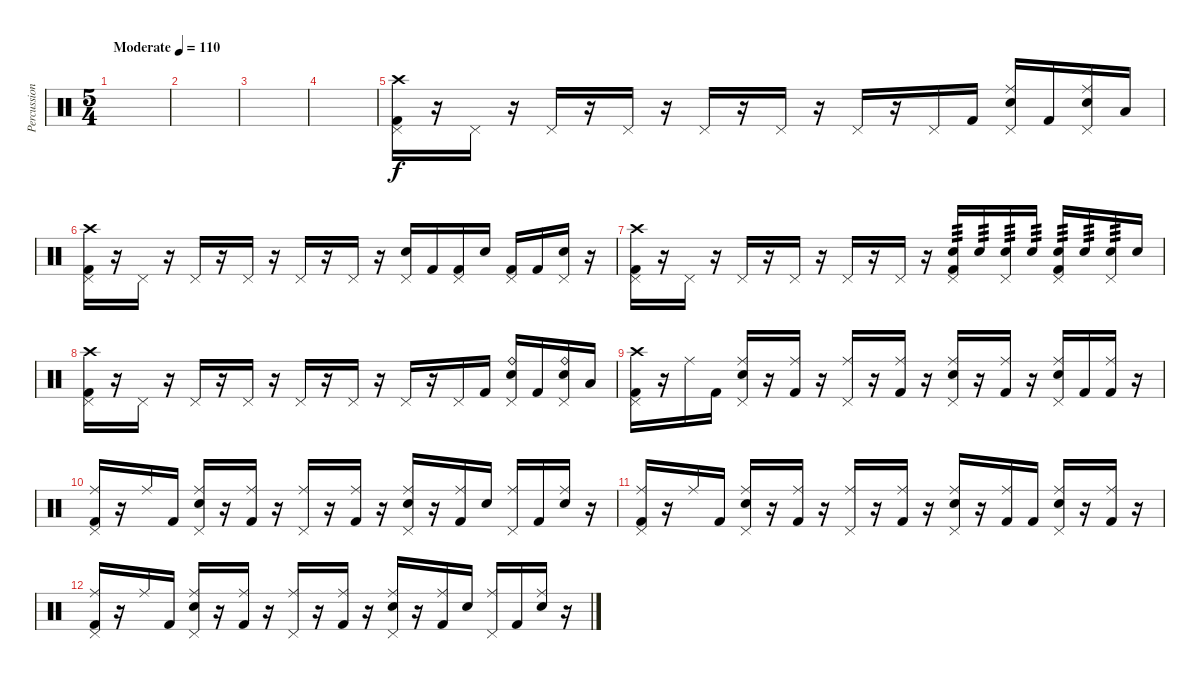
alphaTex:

\track ("Percussion" "Percussion") {instrument percussion}
\staff {score}
\articulation defaults
\ts (5 4)
\tempo (110 "Moderate")
\clef neutral
\ks c
|
|
|
|
("Crash high (hit)" "Pedal Hi-Hat (hit)" "Kick (hit) 2").16 r.16 "Pedal Hi-Hat (hit)".16 r.16 "Pedal Hi-Hat (hit)".16 r.16 "Pedal Hi-Hat (hit)".16 r.16 "Pedal Hi-Hat (hit)".16 r.16 "Pedal Hi-Hat (hit)".16 r.16 "Pedal Hi-Hat (hit)".16 r.16 "Pedal Hi-Hat (hit)".16 "Kick (hit) 2".16 ("Ride (middle)" "Electric Snare (hit)" "Pedal Hi-Hat (hit)").16 "Kick (hit) 2".16 ("Ride (middle)" "Electric Snare (hit)" "Pedal Hi-Hat (hit)").16 "Low Tom (hit)".16 |
("Crash high (hit)" "Pedal Hi-Hat (hit)" "Kick (hit) 2").16 r.16 "Pedal Hi-Hat (hit)".16 r.16 "Pedal Hi-Hat (hit)".16 r.16 "Pedal Hi-Hat (hit)".16 r.16 "Pedal Hi-Hat (hit)".16 r.16 "Pedal Hi-Hat (hit)".16 r.16 ("Electric Snare (hit)" "Pedal Hi-Hat (hit)").16 "Kick (hit) 2".16 ("Pedal Hi-Hat (hit)" "Kick (hit) 2").16 "Electric Snare (hit)".16 ("Pedal Hi-Hat (hit)" "Kick (hit) 2").16 "Kick (hit) 2".16 ("Electric Snare (hit)" "Pedal Hi-Hat (hit)").16 r.16 |
("Crash high (hit)" "Pedal Hi-Hat (hit)" "Kick (hit) 2").16 r.16 "Pedal Hi-Hat (hit)".16 r.16 "Pedal Hi-Hat (hit)".16 r.16 "Pedal Hi-Hat (hit)".16 r.16 "Pedal Hi-Hat (hit)".16 r.16 "Pedal Hi-Hat (hit)".16 r.16 ("Electric Snare (hit)" "Pedal Hi-Hat (hit)" "Kick (hit) 2").16{tp 3} "Electric Snare (hit)".16{tp 3} ("Electric Snare (hit)" "Pedal Hi-Hat (hit)").16{tp 3} "Electric Snare (hit)".16{tp 3} ("Electric Snare (hit)" "Pedal Hi-Hat (hit)" "Kick (hit) 2").16{tp 3} "Electric Snare (hit)".16{tp 3} ("Electric Snare (hit)" "Pedal Hi-Hat (hit)").16{tp 3} "Electric Snare (hit)".16 |
("Crash high (hit)" "Pedal Hi-Hat (hit)" "Kick (hit) 2").16 r.16 "Pedal Hi-Hat (hit)".16 r.16 "Pedal Hi-Hat (hit)".16 r.16 "Pedal Hi-Hat (hit)".16 r.16 "Pedal Hi-Hat (hit)".16 r.16 "Pedal Hi-Hat (hit)".16 r.16 "Pedal Hi-Hat (hit)".16 r.16 "Pedal Hi-Hat (hit)".16 "Kick (hit) 2".16 ("Ride (bell)" "Electric Snare (hit)" "Pedal Hi-Hat (hit)").16 "Kick (hit) 2".16 ("Ride (bell)" "Electric Snare (hit)" "Pedal Hi-Hat (hit)").16 "Low Tom (hit)".16 |
("Crash high (hit)" "Pedal Hi-Hat (hit)" "Kick (hit) 2").16 r.16 "Ride (middle)".16 "Kick (hit) 2".16 ("Ride (middle)" "Electric Snare (hit)" "Pedal Hi-Hat (hit)").16 r.16 ("Ride (middle)" "Kick (hit) 2").16 r.16 ("Ride (middle)" "Pedal Hi-Hat (hit)").16 r.16 ("Ride (middle)" "Kick (hit) 2").16 r.16 ("Ride (middle)" "Electric Snare (hit)" "Pedal Hi-Hat (hit)").16 r.16 ("Ride (middle)" "Kick (hit) 2").16 r.16 ("Ride (middle)" "Electric Snare (hit)" "Pedal Hi-Hat (hit)").16 "Kick (hit) 2".16 ("Ride (middle)" "Kick (hit) 2").16 r.16 |
("Ride (middle)" "Pedal Hi-Hat (hit)" "Kick (hit) 2").16 r.16 "Ride (middle)".16 "Kick (hit) 2".16 ("Ride (middle)" "Electric Snare (hit)" "Pedal Hi-Hat (hit)").16 r.16 ("Ride (middle)" "Kick (hit) 2").16 r.16 ("Ride (middle)" "Pedal Hi-Hat (hit)").16 r.16 ("Ride (middle)" "Kick (hit) 2").16 r.16 ("Ride (middle)" "Electric Snare (hit)" "Pedal Hi-Hat (hit)").16 r.16 ("Ride (middle)" "Kick (hit) 2").16 "Electric Snare (hit)".16 ("Ride (middle)" "Pedal Hi-Hat (hit)").16 "Kick (hit) 2".16 ("Ride (middle)" "Electric Snare (hit)").16 r.16 |
("Ride (middle)" "Pedal Hi-Hat (hit)" "Kick (hit) 2").16 r.16 "Ride (middle)".16 "Kick (hit) 2".16 ("Ride (middle)" "Electric Snare (hit)" "Pedal Hi-Hat (hit)").16 r.16 ("Ride (middle)" "Kick (hit) 2").16 r.16 ("Ride (middle)" "Pedal Hi-Hat (hit)").16 r.16 ("Ride (middle)" "Kick (hit) 2").16 r.16 ("Ride (middle)" "Electric Snare (hit)" "Pedal Hi-Hat (hit)").16 r.16 ("Ride (middle)" "Kick (hit) 2").16 "Kick (hit) 2".16 ("Ride (middle)" "Electric Snare (hit)" "Pedal Hi-Hat (hit)").16 r.16 ("Ride (middle)" "Kick (hit) 2").16 r.16 |
("Ride (middle)" "Pedal Hi-Hat (hit)" "Kick (hit) 2").16 r.16 "Ride (middle)".16 "Kick (hit) 2".16 ("Ride (middle)" "Electric Snare (hit)" "Pedal Hi-Hat (hit)").16 r.16 ("Ride (middle)" "Kick (hit) 2").16 r.16 ("Ride (middle)" "Pedal Hi-Hat (hit)").16 r.16 ("Ride (middle)" "Kick (hit) 2").16 r.16 ("Ride (middle)" "Electric Snare (hit)" "Pedal Hi-Hat (hit)").16 r.16 ("Ride (middle)" "Kick (hit) 2").16 "Electric Snare (hit)".16 ("Ride (middle)" "Pedal Hi-Hat (hit)").16 "Kick (hit) 2".16 ("Ride (middle)" "Electric Snare (hit)").16 r.16
